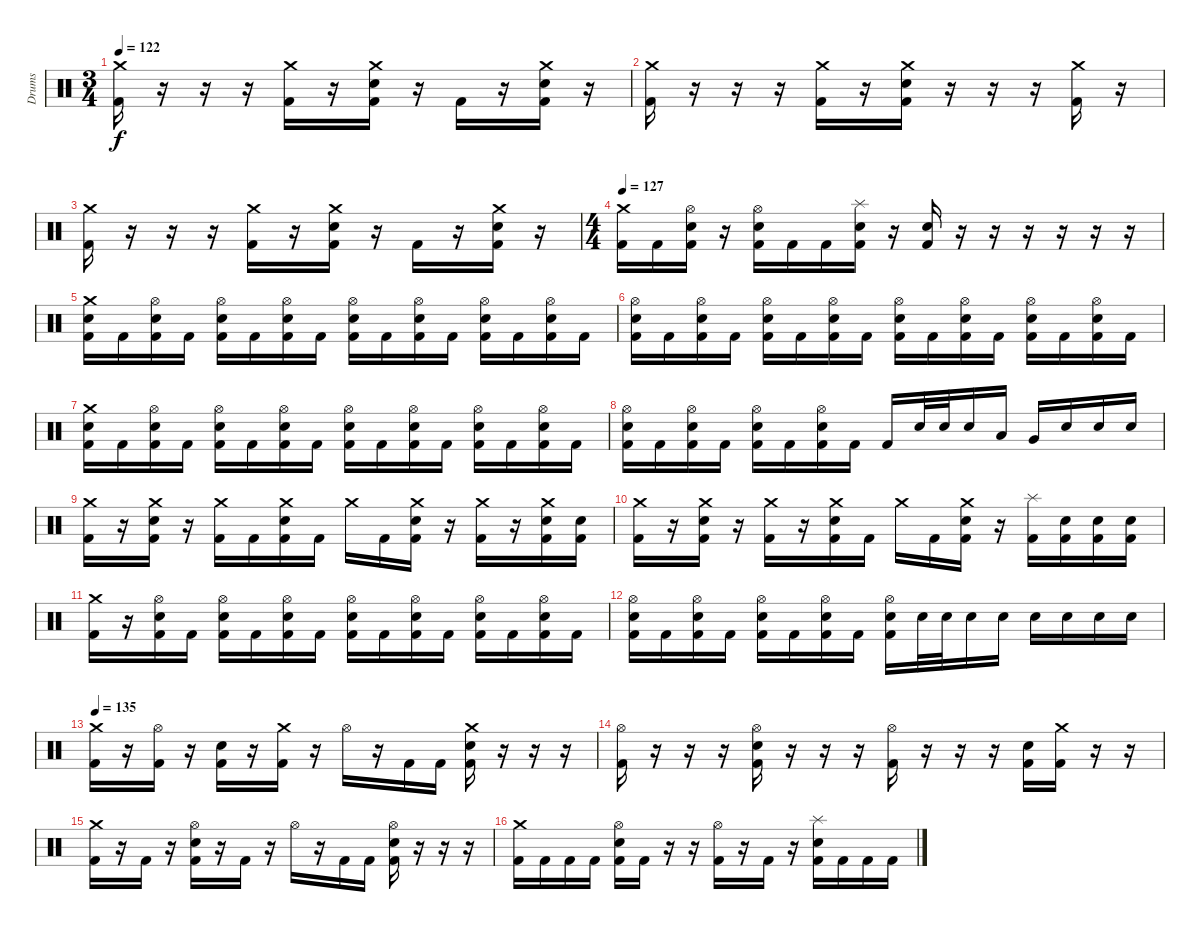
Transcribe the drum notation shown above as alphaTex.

\track ("Drums" "Drums") {instrument percussion}
\staff {score}
\articulation defaults
\ts (3 4)
\tempo 122
\clef neutral
\ks c
("Crash medium (hit)" "Kick (hit) 2").16{dy f} r.16 r.16 r.16 ("Crash medium (hit)" "Kick (hit) 2").16 r.16 ("Crash medium (hit)" "Electric Snare (hit)" "Kick (hit) 2").16 r.16 "Kick (hit) 2".16 r.16 ("Crash medium (hit)" "Electric Snare (hit)" "Kick (hit) 2").16 r.16 |
("Crash medium (hit)" "Kick (hit) 2").16 r.16 r.16 r.16 ("Crash medium (hit)" "Kick (hit) 2").16 r.16 ("Crash medium (hit)" "Electric Snare (hit)" "Kick (hit) 2").16 r.16 r.16 r.16 ("Crash medium (hit)" "Kick (hit) 2").16 r.16 |
("Crash medium (hit)" "Kick (hit) 2").16 r.16 r.16 r.16 ("Crash medium (hit)" "Kick (hit) 2").16 r.16 ("Crash medium (hit)" "Electric Snare (hit)" "Kick (hit) 2").16 r.16 "Kick (hit) 2".16 r.16 ("Crash medium (hit)" "Electric Snare (hit)" "Kick (hit) 2").16 r.16 |
\ts (4 4)
\section ("" "")
\tempo 127
("Crash medium (hit)" "Kick (hit) 2").16 "Kick (hit) 2".16 ("Hi-Hat (open)" "Electric Snare (hit)" "Kick (hit) 2").16 r.16 ("Hi-Hat (open)" "Electric Snare (hit)" "Kick (hit) 2").16 "Kick (hit) 2".16 "Kick (hit) 2".16 ("Splash (hit)" "Electric Snare (hit)" "Kick (hit) 2").16 r.16 ("Electric Snare (hit)" "Kick (hit) 2").16 r.16 r.16 r.16 r.16 r.16 r.16 |
("Crash medium (hit)" "Electric Snare (hit)" "Kick (hit) 2").16 "Kick (hit) 2".16 ("Hi-Hat (open)" "Electric Snare (hit)" "Kick (hit) 2").16 "Kick (hit) 2".16 ("Hi-Hat (open)" "Electric Snare (hit)" "Kick (hit) 2").16 "Kick (hit) 2".16 ("Hi-Hat (open)" "Electric Snare (hit)" "Kick (hit) 2").16 "Kick (hit) 2".16 ("Hi-Hat (open)" "Electric Snare (hit)" "Kick (hit) 2").16 "Kick (hit) 2".16 ("Hi-Hat (open)" "Electric Snare (hit)" "Kick (hit) 2").16 "Kick (hit) 2".16 ("Hi-Hat (open)" "Electric Snare (hit)" "Kick (hit) 2").16 "Kick (hit) 2".16 ("Hi-Hat (open)" "Electric Snare (hit)" "Kick (hit) 2").16 "Kick (hit) 2".16 |
("Hi-Hat (open)" "Electric Snare (hit)" "Kick (hit) 2").16 "Kick (hit) 2".16 ("Hi-Hat (open)" "Electric Snare (hit)" "Kick (hit) 2").16 "Kick (hit) 2".16 ("Hi-Hat (open)" "Electric Snare (hit)" "Kick (hit) 2").16 "Kick (hit) 2".16 ("Hi-Hat (open)" "Electric Snare (hit)" "Kick (hit) 2").16 "Kick (hit) 2".16 ("Hi-Hat (open)" "Electric Snare (hit)" "Kick (hit) 2").16 "Kick (hit) 2".16 ("Hi-Hat (open)" "Electric Snare (hit)" "Kick (hit) 2").16 "Kick (hit) 2".16 ("Hi-Hat (open)" "Electric Snare (hit)" "Kick (hit) 2").16 "Kick (hit) 2".16 ("Hi-Hat (open)" "Electric Snare (hit)" "Kick (hit) 2").16 "Kick (hit) 2".16 |
("Crash medium (hit)" "Electric Snare (hit)" "Kick (hit) 2").16 "Kick (hit) 2".16 ("Hi-Hat (open)" "Electric Snare (hit)" "Kick (hit) 2").16 "Kick (hit) 2".16 ("Hi-Hat (open)" "Electric Snare (hit)" "Kick (hit) 2").16 "Kick (hit) 2".16 ("Hi-Hat (open)" "Electric Snare (hit)" "Kick (hit) 2").16 "Kick (hit) 2".16 ("Hi-Hat (open)" "Electric Snare (hit)" "Kick (hit) 2").16 "Kick (hit) 2".16 ("Hi-Hat (open)" "Electric Snare (hit)" "Kick (hit) 2").16 "Kick (hit) 2".16 ("Hi-Hat (open)" "Electric Snare (hit)" "Kick (hit) 2").16 "Kick (hit) 2".16 ("Hi-Hat (open)" "Electric Snare (hit)" "Kick (hit) 2").16 "Kick (hit) 2".16 |
("Hi-Hat (open)" "Electric Snare (hit)" "Kick (hit) 2").16 "Kick (hit) 2".16 ("Hi-Hat (open)" "Electric Snare (hit)" "Kick (hit) 2").16 "Kick (hit) 2".16 ("Hi-Hat (open)" "Electric Snare (hit)" "Kick (hit) 2").16 "Kick (hit) 2".16 ("Hi-Hat (open)" "Electric Snare (hit)" "Kick (hit) 2").16 "Kick (hit) 2".16 "Kick (hit) 2".16 "Electric Snare (hit)".32 "Electric Snare (hit)".32 "Electric Snare (hit)".16 "Low Tom (hit)".16 "Very Low Tom (hit)".16 "Electric Snare (hit)".16 "Electric Snare (hit)".16 "Electric Snare (hit)".16 |
("Crash medium (hit)" "Kick (hit) 2").16 r.16 ("Crash medium (hit)" "Electric Snare (hit)" "Kick (hit) 2").16 r.16 ("Crash medium (hit)" "Kick (hit) 2").16 "Kick (hit) 2".16 ("Crash medium (hit)" "Electric Snare (hit)" "Kick (hit) 2").16 "Kick (hit) 2".16 "Crash medium (hit)".16 "Kick (hit) 2".16 ("Crash medium (hit)" "Electric Snare (hit)" "Kick (hit) 2").16 r.16 ("Crash medium (hit)" "Kick (hit) 2").16 r.16 ("Crash medium (hit)" "Electric Snare (hit)" "Kick (hit) 2").16 ("Electric Snare (hit)" "Kick (hit) 2").16 |
("Crash medium (hit)" "Kick (hit) 2").16 r.16 ("Crash medium (hit)" "Electric Snare (hit)" "Kick (hit) 2").16 r.16 ("Crash medium (hit)" "Kick (hit) 2").16 r.16 ("Crash medium (hit)" "Electric Snare (hit)" "Kick (hit) 2").16 "Kick (hit) 2".16 "Crash medium (hit)".16 "Kick (hit) 2".16 ("Crash medium (hit)" "Electric Snare (hit)" "Kick (hit) 2").16 r.16 ("Splash (hit)" "Kick (hit) 2").16 ("Electric Snare (hit)" "Kick (hit) 2").16 ("Electric Snare (hit)" "Kick (hit) 2").16 ("Electric Snare (hit)" "Kick (hit) 2").16 |
("Crash medium (hit)" "Kick (hit) 2").16 r.16 ("Hi-Hat (open)" "Electric Snare (hit)" "Kick (hit) 2").16 "Kick (hit) 2".16 ("Hi-Hat (open)" "Electric Snare (hit)" "Kick (hit) 2").16 "Kick (hit) 2".16 ("Hi-Hat (open)" "Electric Snare (hit)" "Kick (hit) 2").16 "Kick (hit) 2".16 ("Hi-Hat (open)" "Electric Snare (hit)" "Kick (hit) 2").16 "Kick (hit) 2".16 ("Hi-Hat (open)" "Electric Snare (hit)" "Kick (hit) 2").16 "Kick (hit) 2".16 ("Hi-Hat (open)" "Electric Snare (hit)" "Kick (hit) 2").16 "Kick (hit) 2".16 ("Hi-Hat (open)" "Electric Snare (hit)" "Kick (hit) 2").16 "Kick (hit) 2".16 |
("Hi-Hat (open)" "Electric Snare (hit)" "Kick (hit) 2").16 "Kick (hit) 2".16 ("Hi-Hat (open)" "Electric Snare (hit)" "Kick (hit) 2").16 "Kick (hit) 2".16 ("Hi-Hat (open)" "Electric Snare (hit)" "Kick (hit) 2").16 "Kick (hit) 2".16 ("Hi-Hat (open)" "Electric Snare (hit)" "Kick (hit) 2").16 "Kick (hit) 2".16 ("Hi-Hat (open)" "Electric Snare (hit)" "Kick (hit) 2").16 "Electric Snare (hit)".32 "Electric Snare (hit)".32 "Electric Snare (hit)".16 "Electric Snare (hit)".16 "Electric Snare (hit)".16 "Electric Snare (hit)".16 "Electric Snare (hit)".16 "Electric Snare (hit)".16 |
\section ("" "")
\tempo 135
("Crash medium (hit)" "Kick (hit) 2").16 r.16 ("Hi-Hat (open)" "Kick (hit) 2").16 r.16 ("Electric Snare (hit)" "Kick (hit) 2").16 r.16 ("Crash medium (hit)" "Kick (hit) 2").16 r.16 "Hi-Hat (open)".16 r.16 "Kick (hit) 2".16 "Kick (hit) 2".16 ("Crash medium (hit)" "Electric Snare (hit)" "Kick (hit) 2").16 r.16 r.16 r.16 |
("Hi-Hat (open)" "Kick (hit) 2").16 r.16 r.16 r.16 ("Hi-Hat (open)" "Electric Snare (hit)" "Kick (hit) 2").16 r.16 r.16 r.16 ("Hi-Hat (open)" "Kick (hit) 2").16 r.16 r.16 r.16 ("Electric Snare (hit)" "Kick (hit) 2").16 ("Crash medium (hit)" "Kick (hit) 2").16 r.16 r.16 |
("Crash medium (hit)" "Kick (hit) 2").16 r.16 "Kick (hit) 2".16 r.16 ("Hi-Hat (open)" "Electric Snare (hit)" "Kick (hit) 2").16 r.16 "Kick (hit) 2".16 r.16 "Hi-Hat (open)".16 r.16 "Kick (hit) 2".16 "Kick (hit) 2".16 ("Hi-Hat (open)" "Electric Snare (hit)" "Kick (hit) 2").16 r.16 r.16 r.16 |
("Crash medium (hit)" "Kick (hit) 2").16 "Kick (hit) 2".16 "Kick (hit) 2".16 "Kick (hit) 2".16 ("Hi-Hat (open)" "Electric Snare (hit)" "Kick (hit) 2").16 "Kick (hit) 2".16 r.16 r.16 ("Hi-Hat (open)" "Kick (hit) 2").16 r.16 "Kick (hit) 2".16 r.16 ("Splash (hit)" "Electric Snare (hit)" "Kick (hit) 2").16 "Kick (hit) 2".16 "Kick (hit) 2".16 "Kick (hit) 2".16
